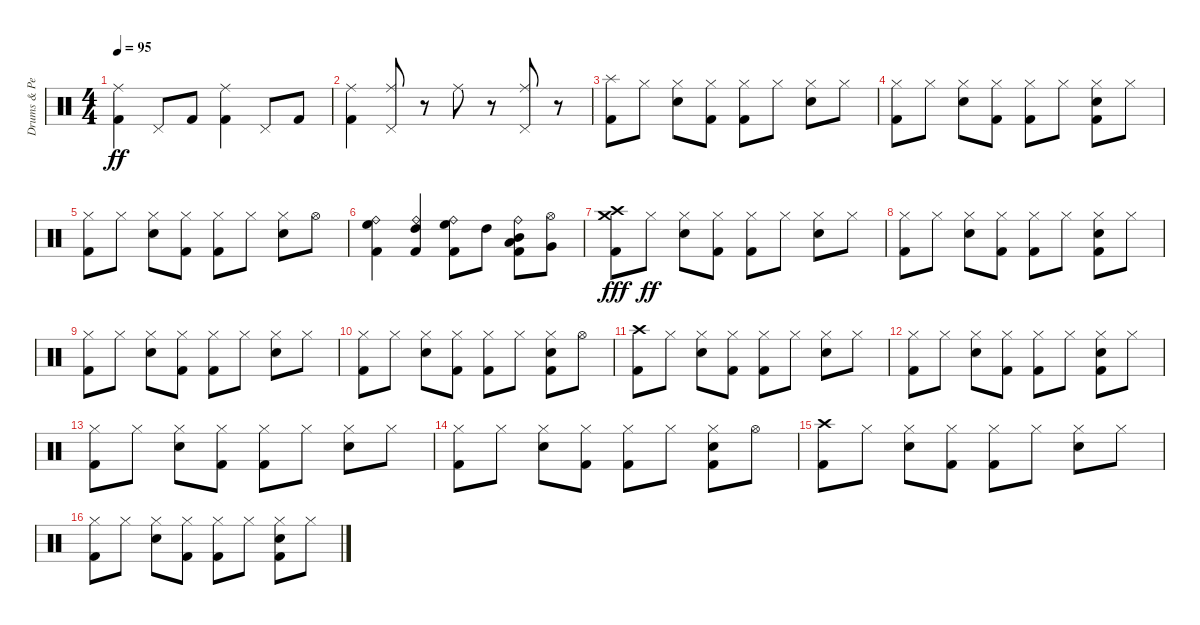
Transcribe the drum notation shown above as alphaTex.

\track ("Drums & Percussion" "Drums & Pe") {instrument percussion}
\staff {score}
\articulation defaults
\ts (4 4)
\tempo 95
\clef neutral
\ks c
("Kick (hit) 2" "Ride (middle)").4{dy ff} "Pedal Hi-Hat (hit)".8 "Kick (hit) 2".8 ("Kick (hit) 2" "Ride (middle)").4 "Pedal Hi-Hat (hit)".8 "Kick (hit) 2".8 |
("Kick (hit) 2" "Ride (middle)").4 ("Pedal Hi-Hat (hit)" "Ride (middle)").8 r.8 "Ride (middle)".8 r.8 ("Pedal Hi-Hat (hit)" "Ride (middle)").8 r.8 |
("Kick (hit) 2" "Splash (hit)").8 "Hi-Hat (closed)".8 ("Snare (hit) 2" "Hi-Hat (closed)").8 ("Kick (hit) 2" "Hi-Hat (closed)").8 ("Kick (hit) 2" "Hi-Hat (closed)").8 "Hi-Hat (closed)".8 ("Snare (hit) 2" "Hi-Hat (closed)").8 "Hi-Hat (closed)".8 |
("Kick (hit) 2" "Hi-Hat (closed)").8 "Hi-Hat (closed)".8 ("Snare (hit) 2" "Hi-Hat (closed)").8 ("Kick (hit) 2" "Hi-Hat (closed)").8 ("Kick (hit) 2" "Hi-Hat (closed)").8 "Hi-Hat (closed)".8 ("Kick (hit) 2" "Snare (hit) 2" "Hi-Hat (closed)").8 "Hi-Hat (closed)".8 |
("Kick (hit) 2" "Hi-Hat (closed)").8 "Hi-Hat (closed)".8 ("Snare (hit) 2" "Hi-Hat (closed)").8 ("Kick (hit) 2" "Hi-Hat (closed)").8 ("Kick (hit) 2" "Hi-Hat (closed)").8 "Hi-Hat (closed)".8 ("Snare (hit) 2" "Hi-Hat (closed)").8 "Hi-Hat (open)".8 |
("Kick (hit) 2" "Ride (bell)" "High Floor Tom (hit)").4 ("Kick (hit) 2" "Ride (bell)" "High Tom (hit)").4 ("Kick (hit) 2" "Ride (bell)" "High Floor Tom (hit)").8 "High Tom (hit)".8 ("Kick (hit) 2" "Ride (bell)" "Mid Tom (hit)" "Low Tom (hit)").8 ("Very Low Tom (hit)" "Hi-Hat (open)").8 |
("Kick (hit) 2" "Crash medium (hit)" "Crash high (hit)").8{dy fff} "Hi-Hat (closed)".8{dy ff} ("Snare (hit) 2" "Hi-Hat (closed)").8 ("Kick (hit) 2" "Hi-Hat (closed)").8 ("Kick (hit) 2" "Hi-Hat (closed)").8 "Hi-Hat (closed)".8 ("Snare (hit) 2" "Hi-Hat (closed)").8 "Hi-Hat (closed)".8 |
("Kick (hit) 2" "Hi-Hat (closed)").8 "Hi-Hat (closed)".8 ("Snare (hit) 2" "Hi-Hat (closed)").8 ("Kick (hit) 2" "Hi-Hat (closed)").8 ("Kick (hit) 2" "Hi-Hat (closed)").8 "Hi-Hat (closed)".8 ("Kick (hit) 2" "Snare (hit) 2" "Hi-Hat (closed)").8 "Hi-Hat (closed)".8 |
("Kick (hit) 2" "Hi-Hat (closed)").8 "Hi-Hat (closed)".8 ("Snare (hit) 2" "Hi-Hat (closed)").8 ("Kick (hit) 2" "Hi-Hat (closed)").8 ("Kick (hit) 2" "Hi-Hat (closed)").8 "Hi-Hat (closed)".8 ("Snare (hit) 2" "Hi-Hat (closed)").8 "Hi-Hat (closed)".8 |
("Kick (hit) 2" "Hi-Hat (closed)").8 "Hi-Hat (closed)".8 ("Snare (hit) 2" "Hi-Hat (closed)").8 ("Kick (hit) 2" "Hi-Hat (closed)").8 ("Kick (hit) 2" "Hi-Hat (closed)").8 "Hi-Hat (closed)".8 ("Kick (hit) 2" "Snare (hit) 2" "Hi-Hat (closed)").8 "Hi-Hat (open)".8 |
("Kick (hit) 2" "Crash high (hit)").8 "Hi-Hat (closed)".8 ("Snare (hit) 2" "Hi-Hat (closed)").8 ("Kick (hit) 2" "Hi-Hat (closed)").8 ("Kick (hit) 2" "Hi-Hat (closed)").8 "Hi-Hat (closed)".8 ("Snare (hit) 2" "Hi-Hat (closed)").8 "Hi-Hat (closed)".8 |
("Kick (hit) 2" "Hi-Hat (closed)").8 "Hi-Hat (closed)".8 ("Snare (hit) 2" "Hi-Hat (closed)").8 ("Kick (hit) 2" "Hi-Hat (closed)").8 ("Kick (hit) 2" "Hi-Hat (closed)").8 "Hi-Hat (closed)".8 ("Kick (hit) 2" "Snare (hit) 2" "Hi-Hat (closed)").8 "Hi-Hat (closed)".8 |
("Kick (hit) 2" "Hi-Hat (closed)").8 "Hi-Hat (closed)".8 ("Snare (hit) 2" "Hi-Hat (closed)").8 ("Kick (hit) 2" "Hi-Hat (closed)").8 ("Kick (hit) 2" "Hi-Hat (closed)").8 "Hi-Hat (closed)".8 ("Snare (hit) 2" "Hi-Hat (closed)").8 "Hi-Hat (closed)".8 |
("Kick (hit) 2" "Hi-Hat (closed)").8 "Hi-Hat (closed)".8 ("Snare (hit) 2" "Hi-Hat (closed)").8 ("Kick (hit) 2" "Hi-Hat (closed)").8 ("Kick (hit) 2" "Hi-Hat (closed)").8 "Hi-Hat (closed)".8 ("Kick (hit) 2" "Snare (hit) 2" "Hi-Hat (closed)").8 "Hi-Hat (open)".8 |
("Kick (hit) 2" "Crash high (hit)").8 "Hi-Hat (closed)".8 ("Snare (hit) 2" "Hi-Hat (closed)").8 ("Kick (hit) 2" "Hi-Hat (closed)").8 ("Kick (hit) 2" "Hi-Hat (closed)").8 "Hi-Hat (closed)".8 ("Snare (hit) 2" "Hi-Hat (closed)").8 "Hi-Hat (closed)".8 |
("Kick (hit) 2" "Hi-Hat (closed)").8 "Hi-Hat (closed)".8 ("Snare (hit) 2" "Hi-Hat (closed)").8 ("Kick (hit) 2" "Hi-Hat (closed)").8 ("Kick (hit) 2" "Hi-Hat (closed)").8 "Hi-Hat (closed)".8 ("Kick (hit) 2" "Snare (hit) 2" "Hi-Hat (closed)").8 "Hi-Hat (closed)".8
